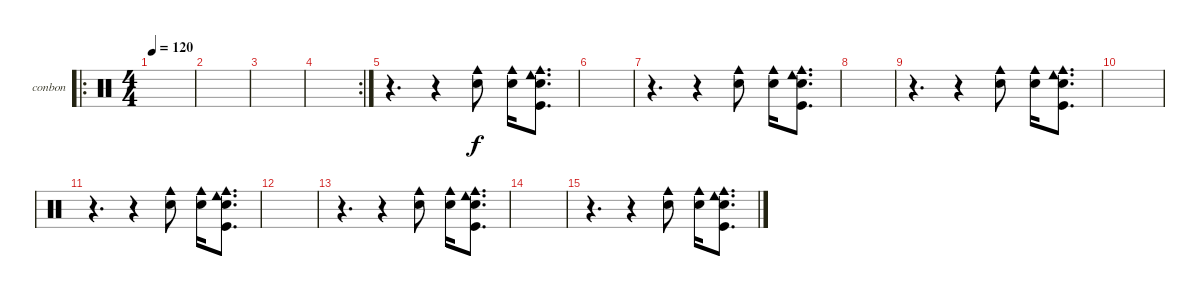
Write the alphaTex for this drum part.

\defaultSystemsLayout 4
\bracketExtendMode groupsimilarinstruments
\firstSystemTrackNameOrientation horizontal
\otherSystemsTrackNameOrientation horizontal
\track ("Bongos N Congas" "conbon") {instrument percussion}
\staff {score}
\articulation defaults
\ro
\ts (4 4)
\tempo 120
\clef neutral
\scale
0.5
\ks c
|
\scale
0.25 |
\scale
0.25 |
\rc 2
\scale
0.355932 |
\scale
0.322034 r.4{d} r.4 ("Snare (hit) 2" "Cowbell medium (hit)").8 ("Cowbell medium (hit)" "Snare (hit) 2").16 ("Kick (hit)" "Cowbell medium (hit)" "Snare (hit) 2" "Cowbell low (hit)").8{d} |
\scale
0.322034 |
\scale
0.333333 r.4{d} r.4 ("Cowbell medium (hit)" "Snare (hit) 2").8 ("Cowbell medium (hit)" "Snare (hit) 2").16 ("Kick (hit)" "Cowbell medium (hit)" "Cowbell low (hit)" "Snare (hit) 2").8{d} |
\scale
0.333333 |
\scale
0.333333 r.4{d} r.4 ("Cowbell medium (hit)" "Snare (hit) 2").8 ("Cowbell medium (hit)" "Snare (hit) 2").16 ("Kick (hit)" "Cowbell medium (hit)" "Cowbell low (hit)" "Snare (hit) 2").8{d} |
\scale
0.333333 |
\scale
0.333333 r.4{d} r.4 ("Cowbell medium (hit)" "Snare (hit) 2").8 ("Cowbell medium (hit)" "Snare (hit) 2").16 ("Kick (hit)" "Cowbell medium (hit)" "Cowbell low (hit)" "Snare (hit) 2").8{d} |
\scale
0.333333 |
\scale
0.333333 r.4{d} r.4 ("Cowbell medium (hit)" "Snare (hit) 2").8{dy f} ("Cowbell medium (hit)" "Snare (hit) 2").16 ("Kick (hit)" "Cowbell medium (hit)" "Cowbell low (hit)" "Snare (hit) 2").8{d} |
\scale
0.333333 |
\scale
0.333333 r.4{d} r.4 ("Cowbell medium (hit)" "Snare (hit) 2").8 ("Cowbell medium (hit)" "Snare (hit) 2").16 ("Kick (hit)" "Cowbell medium (hit)" "Cowbell low (hit)" "Snare (hit) 2").8{d} |
\scale
0.333333
